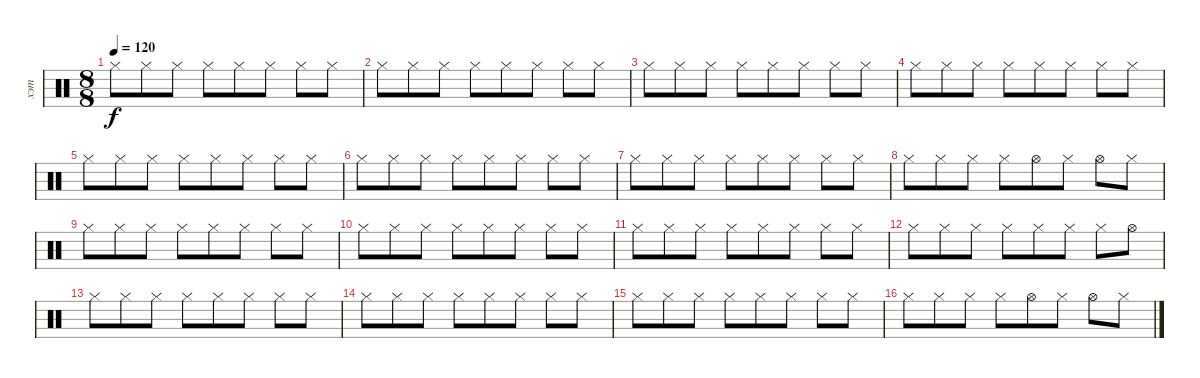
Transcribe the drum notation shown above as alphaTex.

\track ("хэт" "хэт") {instrument percussion}
\staff {score}
\articulation defaults
\ts (8 8)
\tempo 120
\clef neutral
\ks c "Hi-Hat (closed)".8{dy f} "Hi-Hat (closed)".8 "Hi-Hat (closed)".8 "Hi-Hat (closed)".8 "Hi-Hat (closed)".8 "Hi-Hat (closed)".8 "Hi-Hat (closed)".8 "Hi-Hat (closed)".8
|
"Hi-Hat (closed)".8 "Hi-Hat (closed)".8 "Hi-Hat (closed)".8 "Hi-Hat (closed)".8 "Hi-Hat (closed)".8 "Hi-Hat (closed)".8 "Hi-Hat (closed)".8 "Hi-Hat (closed)".8 |
"Hi-Hat (closed)".8 "Hi-Hat (closed)".8 "Hi-Hat (closed)".8 "Hi-Hat (closed)".8 "Hi-Hat (closed)".8 "Hi-Hat (closed)".8 "Hi-Hat (closed)".8 "Hi-Hat (closed)".8 |
"Hi-Hat (closed)".8 "Hi-Hat (closed)".8 "Hi-Hat (closed)".8 "Hi-Hat (closed)".8 "Hi-Hat (closed)".8 "Hi-Hat (closed)".8 "Hi-Hat (closed)".8 "Hi-Hat (closed)".8 |
"Hi-Hat (closed)".8 "Hi-Hat (closed)".8 "Hi-Hat (closed)".8 "Hi-Hat (closed)".8 "Hi-Hat (closed)".8 "Hi-Hat (closed)".8 "Hi-Hat (closed)".8 "Hi-Hat (closed)".8 |
"Hi-Hat (closed)".8 "Hi-Hat (closed)".8 "Hi-Hat (closed)".8 "Hi-Hat (closed)".8 "Hi-Hat (closed)".8 "Hi-Hat (closed)".8 "Hi-Hat (closed)".8 "Hi-Hat (closed)".8 |
"Hi-Hat (closed)".8 "Hi-Hat (closed)".8 "Hi-Hat (closed)".8 "Hi-Hat (closed)".8 "Hi-Hat (closed)".8 "Hi-Hat (closed)".8 "Hi-Hat (closed)".8 "Hi-Hat (closed)".8 |
"Hi-Hat (closed)".8 "Hi-Hat (closed)".8 "Hi-Hat (closed)".8 "Hi-Hat (closed)".8 "Hi-Hat (open)".8 "Hi-Hat (closed)".8 "Hi-Hat (open)".8 "Hi-Hat (closed)".8 |
"Hi-Hat (closed)".8 "Hi-Hat (closed)".8 "Hi-Hat (closed)".8 "Hi-Hat (closed)".8 "Hi-Hat (closed)".8 "Hi-Hat (closed)".8 "Hi-Hat (closed)".8 "Hi-Hat (closed)".8 |
"Hi-Hat (closed)".8 "Hi-Hat (closed)".8 "Hi-Hat (closed)".8 "Hi-Hat (closed)".8 "Hi-Hat (closed)".8 "Hi-Hat (closed)".8 "Hi-Hat (closed)".8 "Hi-Hat (closed)".8 |
"Hi-Hat (closed)".8 "Hi-Hat (closed)".8 "Hi-Hat (closed)".8 "Hi-Hat (closed)".8 "Hi-Hat (closed)".8 "Hi-Hat (closed)".8 "Hi-Hat (closed)".8 "Hi-Hat (closed)".8 |
"Hi-Hat (closed)".8 "Hi-Hat (closed)".8 "Hi-Hat (closed)".8 "Hi-Hat (closed)".8 "Hi-Hat (closed)".8 "Hi-Hat (closed)".8 "Hi-Hat (closed)".8 "Hi-Hat (open)".8 |
"Hi-Hat (closed)".8 "Hi-Hat (closed)".8 "Hi-Hat (closed)".8 "Hi-Hat (closed)".8 "Hi-Hat (closed)".8 "Hi-Hat (closed)".8 "Hi-Hat (closed)".8 "Hi-Hat (closed)".8 |
"Hi-Hat (closed)".8 "Hi-Hat (closed)".8 "Hi-Hat (closed)".8 "Hi-Hat (closed)".8 "Hi-Hat (closed)".8 "Hi-Hat (closed)".8 "Hi-Hat (closed)".8 "Hi-Hat (closed)".8 |
"Hi-Hat (closed)".8 "Hi-Hat (closed)".8 "Hi-Hat (closed)".8 "Hi-Hat (closed)".8 "Hi-Hat (closed)".8 "Hi-Hat (closed)".8 "Hi-Hat (closed)".8 "Hi-Hat (closed)".8 |
"Hi-Hat (closed)".8 "Hi-Hat (closed)".8 "Hi-Hat (closed)".8 "Hi-Hat (closed)".8 "Hi-Hat (open)".8 "Hi-Hat (closed)".8 "Hi-Hat (open)".8 "Hi-Hat (closed)".8
